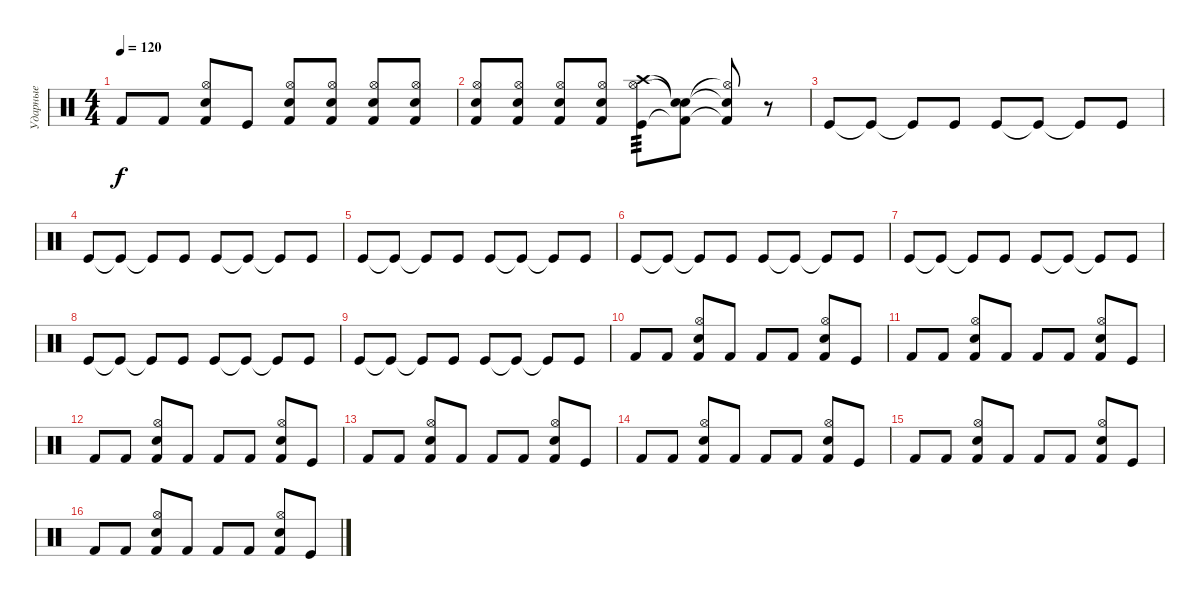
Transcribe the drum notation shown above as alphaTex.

\track ("Ударные" "Ударные") {instrument percussion}
\staff {score}
\articulation defaults
\ts (4 4)
\tempo 120
\clef neutral
\ks c "Kick (hit) 2".8{dy f} "Kick (hit) 2".8
("Kick (hit) 2" "Hi-Hat (open)" "Snare (hit) 2").8 "Kick (hit)".8 ("Kick (hit) 2" "Hi-Hat (open)" "Snare (hit) 2").8 ("Kick (hit) 2" "Hi-Hat (open)" "Snare (hit) 2").8 ("Kick (hit) 2" "Hi-Hat (open)" "Snare (hit) 2").8 ("Kick (hit) 2" "Hi-Hat (open)" "Snare (hit) 2").8 |
("Kick (hit) 2" "Hi-Hat (open)" "Snare (hit) 2").8 ("Kick (hit) 2" "Hi-Hat (open)" "Snare (hit) 2").8 ("Kick (hit) 2" "Hi-Hat (open)" "Snare (hit) 2").8 ("Kick (hit) 2" "Hi-Hat (open)" "Snare (hit) 2").8 ("Kick (hit)" "Hi-Hat (open)" "Crash high (hit)").8{tp 3} ("Kick (hit) 2"{t} "Snare (hit)"{t} "Snare (hit)"{t}).8 ("Kick (hit) 2"{t} "Hi-Hat (open)"{t} "Snare (hit) 2"{t}).8 r.8 |
"Kick (hit)".8 "Kick (hit)"{t}.8 "Kick (hit)"{t}.8 "Kick (hit)".8 "Kick (hit)".8 "Kick (hit)"{t}.8 "Kick (hit)"{t}.8 "Kick (hit)".8 |
"Kick (hit)".8 "Kick (hit)"{t}.8 "Kick (hit)"{t}.8 "Kick (hit)".8 "Kick (hit)".8 "Kick (hit)"{t}.8 "Kick (hit)"{t}.8 "Kick (hit)".8 |
"Kick (hit)".8 "Kick (hit)"{t}.8 "Kick (hit)"{t}.8 "Kick (hit)".8 "Kick (hit)".8 "Kick (hit)"{t}.8 "Kick (hit)"{t}.8 "Kick (hit)".8 |
"Kick (hit)".8 "Kick (hit)"{t}.8 "Kick (hit)"{t}.8 "Kick (hit)".8 "Kick (hit)".8 "Kick (hit)"{t}.8 "Kick (hit)"{t}.8 "Kick (hit)".8 |
"Kick (hit)".8 "Kick (hit)"{t}.8 "Kick (hit)"{t}.8 "Kick (hit)".8 "Kick (hit)".8 "Kick (hit)"{t}.8 "Kick (hit)"{t}.8 "Kick (hit)".8 |
"Kick (hit)".8 "Kick (hit)"{t}.8 "Kick (hit)"{t}.8 "Kick (hit)".8 "Kick (hit)".8 "Kick (hit)"{t}.8 "Kick (hit)"{t}.8 "Kick (hit)".8 |
"Kick (hit)".8 "Kick (hit)"{t}.8 "Kick (hit)"{t}.8 "Kick (hit)".8 "Kick (hit)".8 "Kick (hit)"{t}.8 "Kick (hit)"{t}.8 "Kick (hit)".8 |
"Kick (hit) 2".8 "Kick (hit) 2".8 ("Kick (hit) 2" "Hi-Hat (open)" "Snare (hit) 2").8 "Kick (hit) 2".8 "Kick (hit) 2".8 "Kick (hit) 2".8 ("Kick (hit) 2" "Hi-Hat (open)" "Snare (hit) 2").8 "Kick (hit)".8 |
"Kick (hit) 2".8 "Kick (hit) 2".8 ("Kick (hit) 2" "Hi-Hat (open)" "Snare (hit) 2").8 "Kick (hit) 2".8 "Kick (hit) 2".8 "Kick (hit) 2".8 ("Kick (hit) 2" "Hi-Hat (open)" "Snare (hit) 2").8 "Kick (hit)".8 |
"Kick (hit) 2".8 "Kick (hit) 2".8 ("Kick (hit) 2" "Hi-Hat (open)" "Snare (hit) 2").8 "Kick (hit) 2".8 "Kick (hit) 2".8 "Kick (hit) 2".8 ("Kick (hit) 2" "Hi-Hat (open)" "Snare (hit) 2").8 "Kick (hit)".8 |
"Kick (hit) 2".8 "Kick (hit) 2".8 ("Kick (hit) 2" "Hi-Hat (open)" "Snare (hit) 2").8 "Kick (hit) 2".8 "Kick (hit) 2".8 "Kick (hit) 2".8 ("Kick (hit) 2" "Hi-Hat (open)" "Snare (hit) 2").8 "Kick (hit)".8 |
"Kick (hit) 2".8 "Kick (hit) 2".8 ("Kick (hit) 2" "Hi-Hat (open)" "Snare (hit) 2").8 "Kick (hit) 2".8 "Kick (hit) 2".8 "Kick (hit) 2".8 ("Kick (hit) 2" "Hi-Hat (open)" "Snare (hit) 2").8 "Kick (hit)".8 |
"Kick (hit) 2".8 "Kick (hit) 2".8 ("Kick (hit) 2" "Hi-Hat (open)" "Snare (hit) 2").8 "Kick (hit) 2".8 "Kick (hit) 2".8 "Kick (hit) 2".8 ("Kick (hit) 2" "Hi-Hat (open)" "Snare (hit) 2").8 "Kick (hit)".8 |
"Kick (hit) 2".8 "Kick (hit) 2".8 ("Kick (hit) 2" "Hi-Hat (open)" "Snare (hit) 2").8 "Kick (hit) 2".8 "Kick (hit) 2".8 "Kick (hit) 2".8 ("Kick (hit) 2" "Hi-Hat (open)" "Snare (hit) 2").8 "Kick (hit)".8
